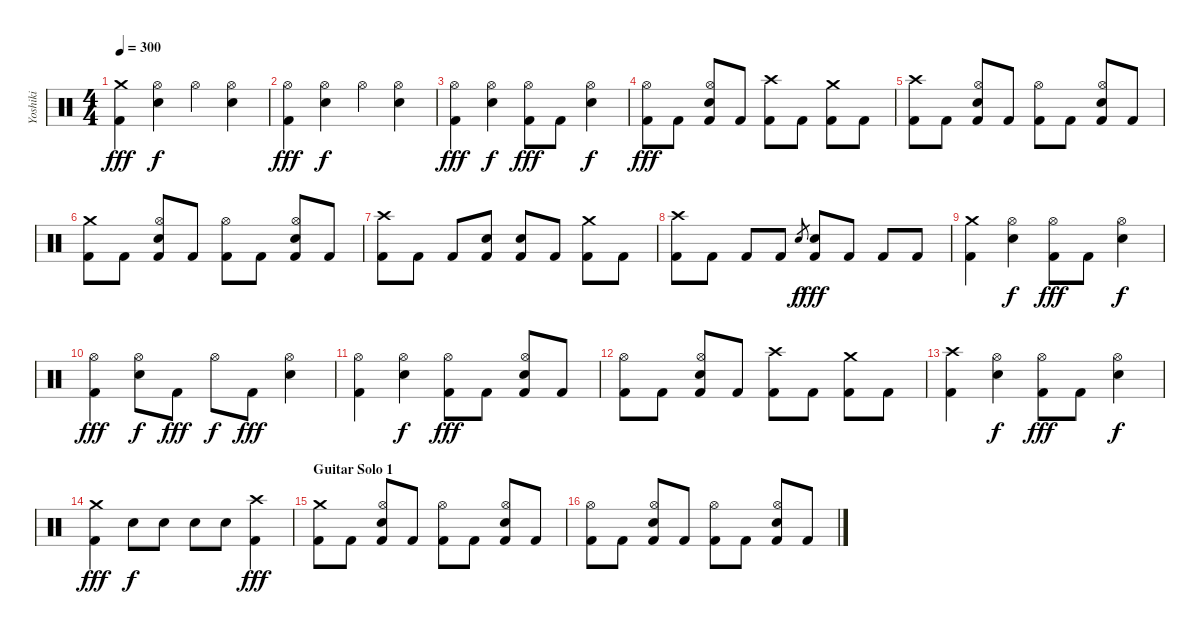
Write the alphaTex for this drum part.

\track ("Yoshiki" "Yoshiki") {instrument percussion}
\staff {score}
\articulation defaults
\ts (4 4)
\tempo 300
\clef neutral
\ks c
("Crash medium (hit)" "Kick (hit) 2").4{dy fff} ("Hi-Hat (open)" "Snare (hit) 2").4{dy f} "Hi-Hat (open)".4 ("Hi-Hat (open)" "Snare (hit) 2").4 |
("Hi-Hat (open)" "Kick (hit) 2").4{dy fff} ("Hi-Hat (open)" "Snare (hit) 2").4{dy f} "Hi-Hat (open)".4 ("Hi-Hat (open)" "Snare (hit) 2").4 |
("Hi-Hat (open)" "Kick (hit) 2").4{dy fff} ("Hi-Hat (open)" "Snare (hit) 2").4{dy f} ("Hi-Hat (open)" "Kick (hit) 2").8{dy fff} "Kick (hit) 2".8 ("Hi-Hat (open)" "Snare (hit) 2").4{dy f} |
("Hi-Hat (open)" "Kick (hit) 2").8{dy fff} "Kick (hit) 2".8 ("Hi-Hat (open)" "Snare (hit) 2" "Kick (hit) 2").8 "Kick (hit) 2".8 ("Crash high (hit)" "Kick (hit) 2").8 "Kick (hit) 2".8 ("Crash medium (hit)" "Kick (hit) 2").8 "Kick (hit) 2".8 |
("Crash high (hit)" "Kick (hit) 2").8 "Kick (hit) 2".8 ("Hi-Hat (open)" "Snare (hit) 2" "Kick (hit) 2").8 "Kick (hit) 2".8 ("Hi-Hat (open)" "Kick (hit) 2").8 "Kick (hit) 2".8 ("Hi-Hat (open)" "Snare (hit) 2" "Kick (hit) 2").8 "Kick (hit) 2".8 |
("Crash medium (hit)" "Kick (hit) 2").8 "Kick (hit) 2".8 ("Hi-Hat (open)" "Snare (hit) 2" "Kick (hit) 2").8 "Kick (hit) 2".8 ("Hi-Hat (open)" "Kick (hit) 2").8 "Kick (hit) 2".8 ("Hi-Hat (open)" "Snare (hit) 2" "Kick (hit) 2").8 "Kick (hit) 2".8 |
("Crash high (hit)" "Kick (hit) 2").8 "Kick (hit) 2".8 "Kick (hit) 2".8 ("Snare (hit) 2" "Kick (hit) 2").8 ("Snare (hit) 2" "Kick (hit) 2").8 "Kick (hit) 2".8 ("Crash medium (hit)" "Kick (hit) 2").8 "Kick (hit) 2".8 |
("Crash high (hit)" "Kick (hit) 2").8 "Kick (hit) 2".8 "Kick (hit) 2".8 "Kick (hit) 2".8 "Snare (hit) 2".8{gr dy f} ("Snare (hit) 2" "Kick (hit) 2").8{dy fff} "Kick (hit) 2".8 "Kick (hit) 2".8 "Kick (hit) 2".8 |
("Crash medium (hit)" "Kick (hit) 2").4 ("Hi-Hat (open)" "Snare (hit) 2").4{dy f} ("Hi-Hat (open)" "Kick (hit) 2").8{dy fff} "Kick (hit) 2".8 ("Hi-Hat (open)" "Snare (hit) 2").4{dy f} |
("Hi-Hat (open)" "Kick (hit) 2").4{dy fff} ("Hi-Hat (open)" "Snare (hit) 2").8{dy f} "Kick (hit) 2".8{dy fff} "Hi-Hat (open)".8{dy f} "Kick (hit) 2".8{dy fff} ("Hi-Hat (open)" "Snare (hit) 2").4 |
("Hi-Hat (open)" "Kick (hit) 2").4 ("Hi-Hat (open)" "Snare (hit) 2").4{dy f} ("Hi-Hat (open)" "Kick (hit) 2").8{dy fff} "Kick (hit) 2".8 ("Hi-Hat (open)" "Snare (hit) 2" "Kick (hit) 2").8 "Kick (hit) 2".8 |
("Hi-Hat (open)" "Kick (hit) 2").8 "Kick (hit) 2".8 ("Hi-Hat (open)" "Snare (hit) 2" "Kick (hit) 2").8 "Kick (hit) 2".8 ("Crash high (hit)" "Kick (hit) 2").8 "Kick (hit) 2".8 ("Crash medium (hit)" "Kick (hit) 2").8 "Kick (hit) 2".8 |
("Crash high (hit)" "Kick (hit) 2").4 ("Hi-Hat (open)" "Snare (hit) 2").4{dy f} ("Hi-Hat (open)" "Kick (hit) 2").8{dy fff} "Kick (hit) 2".8 ("Hi-Hat (open)" "Snare (hit) 2").4{dy f} |
("Crash medium (hit)" "Kick (hit) 2").4{dy fff} "Snare (hit) 2".8{dy f} "Snare (hit) 2".8 "Snare (hit) 2".8 "Snare (hit) 2".8 ("Crash high (hit)" "Kick (hit) 2").4{dy fff} |
\section ("" "Guitar Solo 1")
("Crash medium (hit)" "Kick (hit) 2").8 "Kick (hit) 2".8 ("Hi-Hat (open)" "Snare (hit) 2" "Kick (hit) 2").8 "Kick (hit) 2".8 ("Hi-Hat (open)" "Kick (hit) 2").8 "Kick (hit) 2".8 ("Hi-Hat (open)" "Snare (hit) 2" "Kick (hit) 2").8 "Kick (hit) 2".8 |
("Hi-Hat (open)" "Kick (hit) 2").8 "Kick (hit) 2".8 ("Hi-Hat (open)" "Snare (hit) 2" "Kick (hit) 2").8 "Kick (hit) 2".8 ("Hi-Hat (open)" "Kick (hit) 2").8 "Kick (hit) 2".8 ("Hi-Hat (open)" "Snare (hit) 2" "Kick (hit) 2").8 "Kick (hit) 2".8
